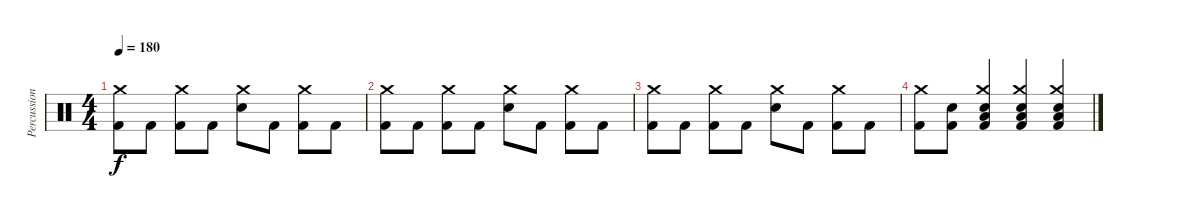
\track ("Percussion" "Percussion") {instrument percussion}
\staff {score}
\articulation defaults
\ts (4 4)
\tempo 180
\clef neutral
\ks c
("Kick (hit) 2" "Crash medium (hit)").8{dy f} "Kick (hit) 2".8 ("Kick (hit) 2" "Crash medium (hit)").8 "Kick (hit) 2".8 ("Electric Snare (hit)" "Crash medium (hit)").8 "Kick (hit) 2".8 ("Kick (hit) 2" "Crash medium (hit)").8 "Kick (hit) 2".8 |
("Kick (hit) 2" "Crash medium (hit)").8 "Kick (hit) 2".8 ("Kick (hit) 2" "Crash medium (hit)").8 "Kick (hit) 2".8 ("Electric Snare (hit)" "Crash medium (hit)").8 "Kick (hit) 2".8 ("Kick (hit) 2" "Crash medium (hit)").8 "Kick (hit) 2".8 |
("Kick (hit) 2" "Crash medium (hit)").8 "Kick (hit) 2".8 ("Kick (hit) 2" "Crash medium (hit)").8 "Kick (hit) 2".8 ("Electric Snare (hit)" "Crash medium (hit)").8 "Kick (hit) 2".8 ("Kick (hit) 2" "Crash medium (hit)").8 "Kick (hit) 2".8 |
("Kick (hit) 2" "Crash medium (hit)").8 ("Kick (hit) 2" "Electric Snare (hit)").8 ("Low Tom (hit)" "Electric Snare (hit)" "Kick (hit) 2" "Crash medium (hit)").4 ("Low Tom (hit)" "Electric Snare (hit)" "Kick (hit) 2" "Crash medium (hit)").4 ("Low Tom (hit)" "Electric Snare (hit)" "Kick (hit) 2" "Crash medium (hit)").4
